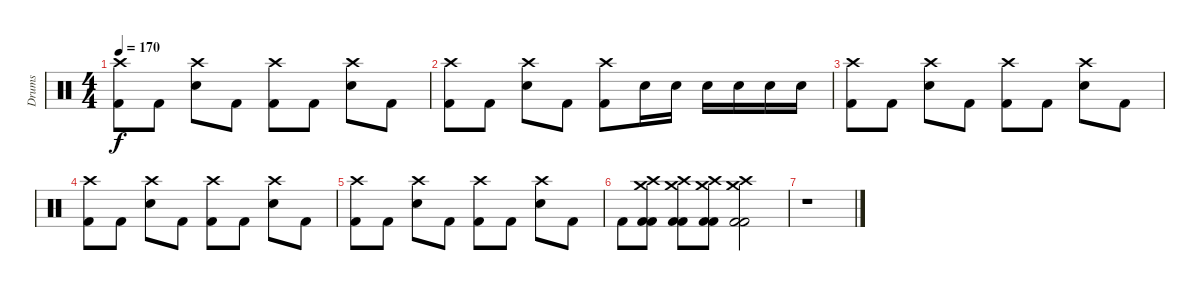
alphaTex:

\track ("Drums" "Drums") {instrument percussion}
\staff {score}
\articulation defaults
\ts (4 4)
\tempo 170
\clef neutral
\ks c
("Crash high (hit)" "Kick (hit) 2").8{dy f} "Kick (hit) 2".8 ("Crash high (hit)" "Snare (hit) 2").8 "Kick (hit) 2".8 ("Crash high (hit)" "Kick (hit) 2").8 "Kick (hit) 2".8 ("Crash high (hit)" "Snare (hit) 2").8 "Kick (hit) 2".8 |
("Crash high (hit)" "Kick (hit) 2").8 "Kick (hit) 2".8 ("Crash high (hit)" "Snare (hit) 2").8 "Kick (hit) 2".8 ("Crash high (hit)" "Kick (hit) 2").8 "Snare (hit) 2".16 "Snare (hit) 2".16 "Snare (hit) 2".16 "Snare (hit) 2".16 "Snare (hit) 2".16 "Snare (hit) 2".16 |
("Crash high (hit)" "Kick (hit) 2").8 "Kick (hit) 2".8 ("Crash high (hit)" "Snare (hit) 2").8 "Kick (hit) 2".8 ("Crash high (hit)" "Kick (hit) 2").8 "Kick (hit) 2".8 ("Crash high (hit)" "Snare (hit) 2").8 "Kick (hit) 2".8 |
("Crash high (hit)" "Kick (hit) 2").8 "Kick (hit) 2".8 ("Crash high (hit)" "Snare (hit) 2").8 "Kick (hit) 2".8 ("Crash high (hit)" "Kick (hit) 2").8 "Kick (hit) 2".8 ("Crash high (hit)" "Snare (hit) 2").8 "Kick (hit) 2".8 |
("Crash high (hit)" "Kick (hit) 2").8 "Kick (hit) 2".8 ("Crash high (hit)" "Snare (hit) 2").8 "Kick (hit) 2".8 ("Crash high (hit)" "Kick (hit) 2").8 "Kick (hit) 2".8 ("Crash high (hit)" "Snare (hit) 2").8 "Kick (hit) 2".8 |
"Kick (hit) 2".8 ("Crash high (hit)" "Crash medium (hit)" "Kick (hit) 2" "Kick (hit) 2").8 ("Crash high (hit)" "Crash medium (hit)" "Kick (hit) 2" "Kick (hit) 2").8 ("Crash high (hit)" "Crash medium (hit)" "Kick (hit) 2" "Kick (hit) 2").8 ("Crash high (hit)" "Crash medium (hit)" "Kick (hit) 2" "Kick (hit) 2").2 |
r.1
